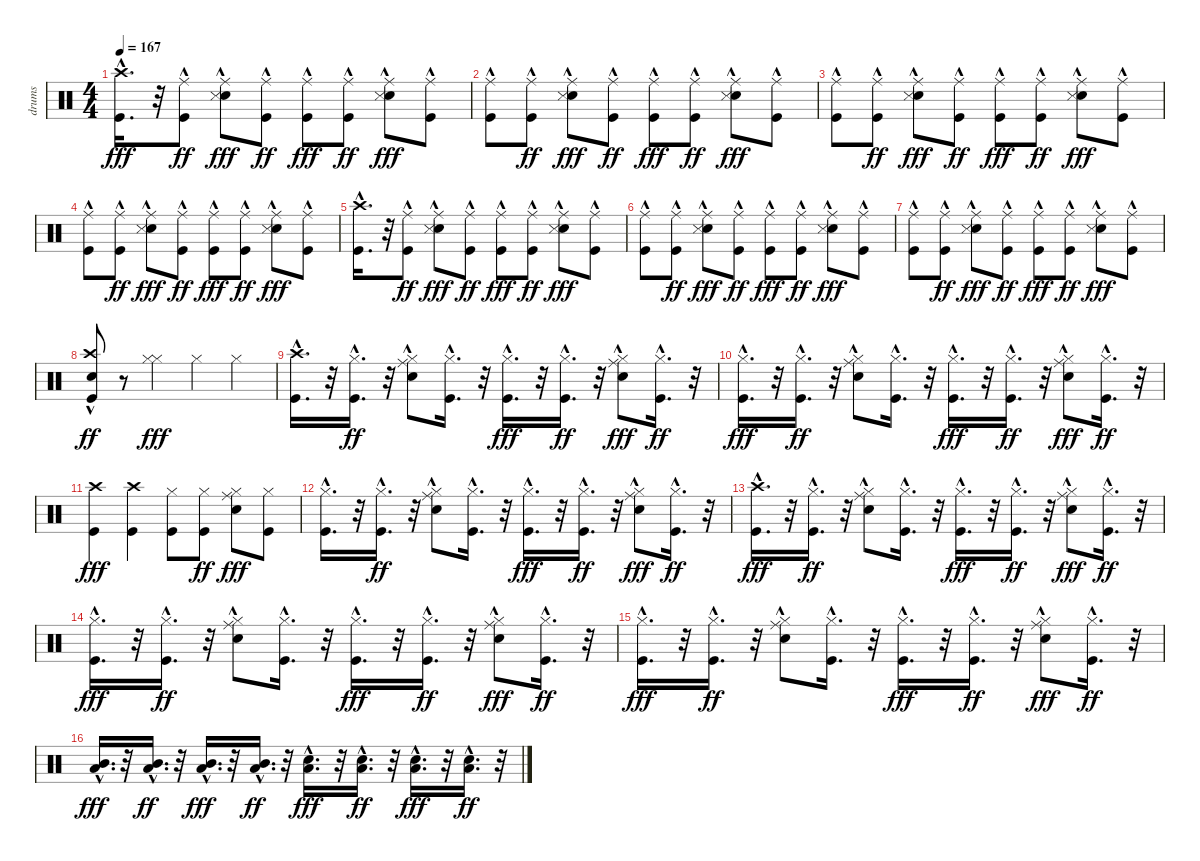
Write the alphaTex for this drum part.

\track ("drums" "drums") {instrument percussion}
\staff {score}
\articulation defaults
\ts (4 4)
\tempo 167
\clef neutral
\ks c
("Kick (hit)"{hac} "Crash high (hit)"{hac}).16{d dy fff} r.32 ("Kick (hit)"{hac} "Ride (middle)").8{dy ff} ("Snare (hit) 2"{hac} "Snare (side stick) 3"{hac} "Ride (middle)").8{dy fff} ("Kick (hit)"{hac} "Ride (middle)").8{dy ff} ("Kick (hit)"{hac} "Ride (middle)").8{dy fff} ("Kick (hit)"{hac} "Ride (middle)").8{dy ff} ("Snare (hit) 2"{hac} "Snare (side stick) 3"{hac} "Ride (middle)").8{dy fff} ("Ride (middle)" "Kick (hit)"{hac}).8 |
("Kick (hit)"{hac} "Ride (middle)").8 ("Kick (hit)"{hac} "Ride (middle)").8{dy ff} ("Snare (hit) 2"{hac} "Snare (side stick) 3"{hac} "Ride (middle)").8{dy fff} ("Kick (hit)"{hac} "Ride (middle)").8{dy ff} ("Kick (hit)"{hac} "Ride (middle)").8{dy fff} ("Kick (hit)"{hac} "Ride (middle)").8{dy ff} ("Snare (hit) 2"{hac} "Snare (side stick) 3"{hac} "Ride (middle)").8{dy fff} ("Ride (middle)" "Kick (hit)"{hac}).8 |
("Kick (hit)"{hac} "Ride (middle)").8 ("Kick (hit)"{hac} "Ride (middle)").8{dy ff} ("Snare (hit) 2"{hac} "Snare (side stick) 3"{hac} "Ride (middle)").8{dy fff} ("Kick (hit)"{hac} "Ride (middle)").8{dy ff} ("Kick (hit)"{hac} "Ride (middle)").8{dy fff} ("Kick (hit)"{hac} "Ride (middle)").8{dy ff} ("Snare (hit) 2"{hac} "Snare (side stick) 3"{hac} "Ride (middle)").8{dy fff} ("Ride (middle)" "Kick (hit)"{hac}).8 |
("Kick (hit)"{hac} "Ride (middle)").8 ("Kick (hit)"{hac} "Ride (middle)").8{dy ff} ("Snare (hit) 2"{hac} "Snare (side stick) 3"{hac} "Ride (middle)").8{dy fff} ("Kick (hit)"{hac} "Ride (middle)").8{dy ff} ("Kick (hit)"{hac} "Ride (middle)").8{dy fff} ("Kick (hit)"{hac} "Ride (middle)").8{dy ff} ("Snare (hit) 2"{hac} "Snare (side stick) 3"{hac} "Ride (middle)").8{dy fff} ("Ride (middle)" "Kick (hit)"{hac}).8 |
("Kick (hit)"{hac} "Crash high (hit)"{hac}).16{d} r.32 ("Kick (hit)"{hac} "Ride (middle)").8{dy ff} ("Snare (hit) 2"{hac} "Snare (side stick) 3"{hac} "Ride (middle)").8{dy fff} ("Kick (hit)"{hac} "Ride (middle)").8{dy ff} ("Kick (hit)"{hac} "Ride (middle)").8{dy fff} ("Kick (hit)"{hac} "Ride (middle)").8{dy ff} ("Snare (hit) 2"{hac} "Snare (side stick) 3"{hac} "Ride (middle)").8{dy fff} ("Ride (middle)" "Kick (hit)"{hac}).8 |
("Kick (hit)"{hac} "Ride (middle)").8 ("Kick (hit)"{hac} "Ride (middle)").8{dy ff} ("Snare (hit) 2"{hac} "Snare (side stick) 3"{hac} "Ride (middle)").8{dy fff} ("Kick (hit)"{hac} "Ride (middle)").8{dy ff} ("Kick (hit)"{hac} "Ride (middle)").8{dy fff} ("Kick (hit)"{hac} "Ride (middle)").8{dy ff} ("Snare (hit) 2"{hac} "Snare (side stick) 3"{hac} "Ride (middle)").8{dy fff} ("Ride (middle)" "Kick (hit)"{hac}).8 |
("Kick (hit)"{hac} "Ride (middle)").8 ("Kick (hit)"{hac} "Ride (middle)").8{dy ff} ("Snare (hit) 2"{hac} "Snare (side stick) 3"{hac} "Ride (middle)").8{dy fff} ("Kick (hit)"{hac} "Ride (middle)").8{dy ff} ("Kick (hit)"{hac} "Ride (middle)").8{dy fff} ("Kick (hit)"{hac} "Ride (middle)").8{dy ff} ("Snare (hit) 2"{hac} "Snare (side stick) 3"{hac} "Ride (middle)").8{dy fff} ("Ride (middle)" "Kick (hit)"{hac}).8 |
("Snare (hit) 2" "Kick (hit)"{hac} "Crash high (hit)").8{dy ff} r.8 ("Hi-Hat (closed)" "Hi-Hat (closed)").4{dy fff} "Hi-Hat (closed)".4 "Hi-Hat (closed)".4 |
("Kick (hit)"{hac} "Crash high (hit)"{hac}).16{d} r.32 ("Kick (hit)"{hac} "Hi-Hat (closed)"{hac}).16{d dy ff} r.32 ("Snare (hit) 2"{hac} "Hi-Hat (closed)"{hac} "Ride (middle)").8 ("Kick (hit)"{hac} "Hi-Hat (closed)"{hac}).16{d} r.32 ("Kick (hit)"{hac} "Hi-Hat (closed)"{hac}).16{d dy fff} r.32 ("Kick (hit)"{hac} "Hi-Hat (closed)"{hac}).16{d dy ff} r.32 ("Ride (middle)" "Snare (hit) 2"{hac} "Hi-Hat (closed)"{hac}).8{dy fff} ("Kick (hit)"{hac} "Hi-Hat (closed)"{hac}).16{d dy ff} r.32 |
("Kick (hit)"{hac} "Hi-Hat (closed)"{hac}).16{d dy fff} r.32 ("Kick (hit)"{hac} "Hi-Hat (closed)"{hac}).16{d dy ff} r.32 ("Snare (hit) 2"{hac} "Hi-Hat (closed)"{hac} "Ride (middle)").8 ("Kick (hit)"{hac} "Hi-Hat (closed)"{hac}).16{d} r.32 ("Kick (hit)"{hac} "Hi-Hat (closed)"{hac}).16{d dy fff} r.32 ("Kick (hit)"{hac} "Hi-Hat (closed)"{hac}).16{d dy ff} r.32 ("Ride (middle)" "Snare (hit) 2"{hac} "Hi-Hat (closed)"{hac}).8{dy fff} ("Kick (hit)"{hac} "Hi-Hat (closed)"{hac}).16{d dy ff} r.32 |
("Kick (hit)" "Crash high (hit)").4{dy fff} ("Kick (hit)" "Crash high (hit)").4 ("Kick (hit)" "Hi-Hat (closed)").8 ("Kick (hit)" "Hi-Hat (closed)").8{dy ff} ("Ride (middle)" "Snare (hit) 2" "Hi-Hat (closed)").8{dy fff} ("Hi-Hat (closed)" "Kick (hit)").8 |
("Kick (hit)"{hac} "Hi-Hat (closed)"{hac}).16{d} r.32 ("Kick (hit)"{hac} "Hi-Hat (closed)"{hac}).16{d dy ff} r.32 ("Snare (hit) 2"{hac} "Hi-Hat (closed)"{hac} "Ride (middle)").8 ("Kick (hit)"{hac} "Hi-Hat (closed)"{hac}).16{d} r.32 ("Kick (hit)"{hac} "Hi-Hat (closed)"{hac}).16{d dy fff} r.32 ("Kick (hit)"{hac} "Hi-Hat (closed)"{hac}).16{d dy ff} r.32 ("Ride (middle)" "Snare (hit) 2"{hac} "Hi-Hat (closed)"{hac}).8{dy fff} ("Kick (hit)"{hac} "Hi-Hat (closed)"{hac}).16{d dy ff} r.32 |
("Kick (hit)"{hac} "Crash high (hit)"{hac}).16{d dy fff} r.32 ("Kick (hit)"{hac} "Hi-Hat (closed)"{hac}).16{d dy ff} r.32 ("Snare (hit) 2"{hac} "Hi-Hat (closed)"{hac} "Ride (middle)").8 ("Kick (hit)"{hac} "Hi-Hat (closed)"{hac}).16{d} r.32 ("Kick (hit)"{hac} "Hi-Hat (closed)"{hac}).16{d dy fff} r.32 ("Kick (hit)"{hac} "Hi-Hat (closed)"{hac}).16{d dy ff} r.32 ("Ride (middle)" "Snare (hit) 2"{hac} "Hi-Hat (closed)"{hac}).8{dy fff} ("Kick (hit)"{hac} "Hi-Hat (closed)"{hac}).16{d dy ff} r.32 |
("Kick (hit)"{hac} "Hi-Hat (closed)"{hac}).16{d dy fff} r.32 ("Kick (hit)"{hac} "Hi-Hat (closed)"{hac}).16{d dy ff} r.32 ("Snare (hit) 2"{hac} "Hi-Hat (closed)"{hac} "Ride (middle)").8 ("Kick (hit)"{hac} "Hi-Hat (closed)"{hac}).16{d} r.32 ("Kick (hit)"{hac} "Hi-Hat (closed)"{hac}).16{d dy fff} r.32 ("Kick (hit)"{hac} "Hi-Hat (closed)"{hac}).16{d dy ff} r.32 ("Ride (middle)" "Snare (hit) 2"{hac} "Hi-Hat (closed)"{hac}).8{dy fff} ("Kick (hit)"{hac} "Hi-Hat (closed)"{hac}).16{d dy ff} r.32 |
("Kick (hit)"{hac} "Hi-Hat (closed)"{hac}).16{d dy fff} r.32 ("Kick (hit)"{hac} "Hi-Hat (closed)"{hac}).16{d dy ff} r.32 ("Snare (hit) 2"{hac} "Hi-Hat (closed)"{hac} "Ride (middle)").8 ("Kick (hit)"{hac} "Hi-Hat (closed)"{hac}).16{d} r.32 ("Kick (hit)"{hac} "Hi-Hat (closed)"{hac}).16{d dy fff} r.32 ("Kick (hit)"{hac} "Hi-Hat (closed)"{hac}).16{d dy ff} r.32 ("Ride (middle)" "Snare (hit) 2"{hac} "Hi-Hat (closed)"{hac}).8{dy fff} ("Kick (hit)"{hac} "Hi-Hat (closed)"{hac}).16{d dy ff} r.32 |
("Low Floor Tom (hit)"{hac} "Mid Tom (hit)"{hac}).16{d dy fff} r.32 ("Low Floor Tom (hit)"{hac} "Mid Tom (hit)"{hac}).16{d dy ff} r.32 ("Low Floor Tom (hit)"{hac} "Mid Tom (hit)"{hac}).16{d dy fff} r.32 ("Low Floor Tom (hit)"{hac} "Mid Tom (hit)"{hac}).16{d dy ff} r.32 ("Snare (hit) 2"{hac} "Low Floor Tom (hit)"{hac}).16{d dy fff} r.32 ("Snare (hit) 2"{hac} "Low Floor Tom (hit)"{hac}).16{d dy ff} r.32 ("Snare (hit) 2"{hac} "Low Floor Tom (hit)"{hac}).16{d dy fff} r.32 ("Snare (hit) 2"{hac} "Low Floor Tom (hit)"{hac}).16{d dy ff} r.32
